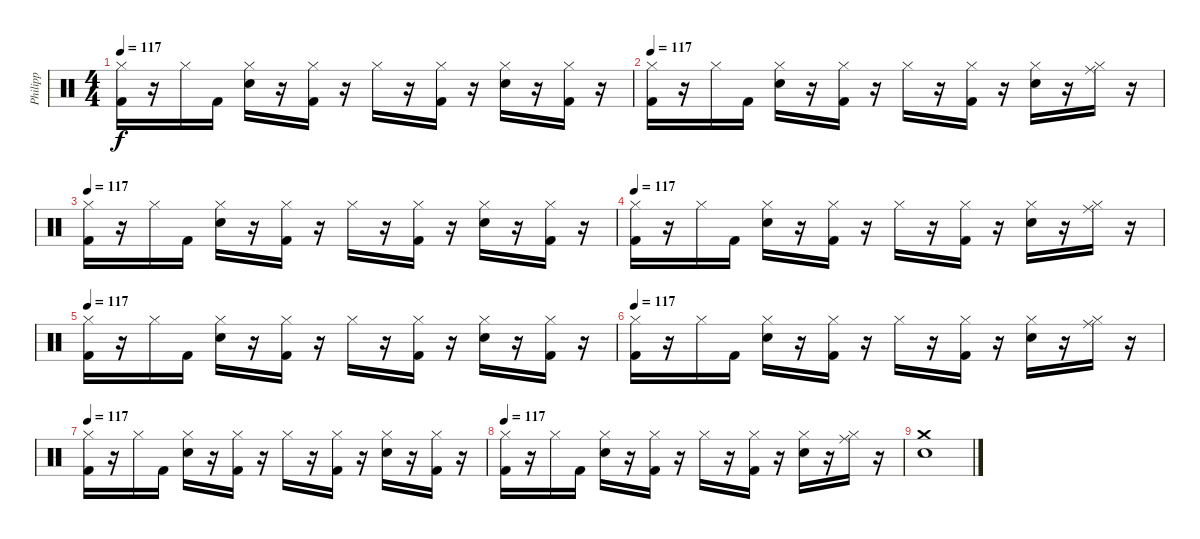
\track ("Philipp" "Philipp") {instrument percussion}
\staff {score}
\articulation defaults
\ts (4 4)
\tempo 117
\clef neutral
\ks c
("Hi-Hat (closed)" "Kick (hit) 2").16{dy f} r.16 "Hi-Hat (closed)".16 "Kick (hit) 2".16 ("Hi-Hat (closed)" "Electric Snare (hit)").16 r.16 ("Hi-Hat (closed)" "Kick (hit) 2").16 r.16 "Hi-Hat (closed)".16 r.16 ("Hi-Hat (closed)" "Kick (hit) 2").16 r.16 ("Hi-Hat (closed)" "Electric Snare (hit)").16 r.16 ("Hi-Hat (closed)" "Kick (hit) 2").16 r.16 |
\tempo 117
("Hi-Hat (closed)" "Kick (hit) 2").16 r.16 "Hi-Hat (closed)".16 "Kick (hit) 2".16 ("Hi-Hat (closed)" "Electric Snare (hit)").16 r.16 ("Hi-Hat (closed)" "Kick (hit) 2").16 r.16 "Hi-Hat (closed)".16 r.16 ("Hi-Hat (closed)" "Kick (hit) 2").16 r.16 ("Hi-Hat (closed)" "Electric Snare (hit)").16 r.16 ("Hi-Hat (closed)" "Ride (middle)").16 r.16 |
\tempo 117
("Hi-Hat (closed)" "Kick (hit) 2").16 r.16 "Hi-Hat (closed)".16 "Kick (hit) 2".16 ("Hi-Hat (closed)" "Electric Snare (hit)").16 r.16 ("Hi-Hat (closed)" "Kick (hit) 2").16 r.16 "Hi-Hat (closed)".16 r.16 ("Hi-Hat (closed)" "Kick (hit) 2").16 r.16 ("Hi-Hat (closed)" "Electric Snare (hit)").16 r.16 ("Hi-Hat (closed)" "Kick (hit) 2").16 r.16 |
\tempo 117
("Hi-Hat (closed)" "Kick (hit) 2").16 r.16 "Hi-Hat (closed)".16 "Kick (hit) 2".16 ("Hi-Hat (closed)" "Electric Snare (hit)").16 r.16 ("Hi-Hat (closed)" "Kick (hit) 2").16 r.16 "Hi-Hat (closed)".16 r.16 ("Hi-Hat (closed)" "Kick (hit) 2").16 r.16 ("Hi-Hat (closed)" "Electric Snare (hit)").16 r.16 ("Hi-Hat (closed)" "Ride (middle)").16 r.16 |
\tempo 117
("Hi-Hat (closed)" "Kick (hit) 2").16 r.16 "Hi-Hat (closed)".16 "Kick (hit) 2".16 ("Hi-Hat (closed)" "Electric Snare (hit)").16 r.16 ("Hi-Hat (closed)" "Kick (hit) 2").16 r.16 "Hi-Hat (closed)".16 r.16 ("Hi-Hat (closed)" "Kick (hit) 2").16 r.16 ("Hi-Hat (closed)" "Electric Snare (hit)").16 r.16 ("Hi-Hat (closed)" "Kick (hit) 2").16 r.16 |
\tempo 117
("Hi-Hat (closed)" "Kick (hit) 2").16 r.16 "Hi-Hat (closed)".16 "Kick (hit) 2".16 ("Hi-Hat (closed)" "Electric Snare (hit)").16 r.16 ("Hi-Hat (closed)" "Kick (hit) 2").16 r.16 "Hi-Hat (closed)".16 r.16 ("Hi-Hat (closed)" "Kick (hit) 2").16 r.16 ("Hi-Hat (closed)" "Electric Snare (hit)").16 r.16 ("Hi-Hat (closed)" "Ride (middle)").16 r.16 |
\tempo 117
("Hi-Hat (closed)" "Kick (hit) 2").16 r.16 "Hi-Hat (closed)".16 "Kick (hit) 2".16 ("Hi-Hat (closed)" "Electric Snare (hit)").16 r.16 ("Hi-Hat (closed)" "Kick (hit) 2").16 r.16 "Hi-Hat (closed)".16 r.16 ("Hi-Hat (closed)" "Kick (hit) 2").16 r.16 ("Hi-Hat (closed)" "Electric Snare (hit)").16 r.16 ("Hi-Hat (closed)" "Kick (hit) 2").16 r.16 |
\tempo 117
("Hi-Hat (closed)" "Kick (hit) 2").16 r.16 "Hi-Hat (closed)".16 "Kick (hit) 2".16 ("Hi-Hat (closed)" "Electric Snare (hit)").16 r.16 ("Hi-Hat (closed)" "Kick (hit) 2").16 r.16 "Hi-Hat (closed)".16 r.16 ("Hi-Hat (closed)" "Kick (hit) 2").16 r.16 ("Hi-Hat (closed)" "Electric Snare (hit)").16 r.16 ("Hi-Hat (closed)" "Ride (middle)").16 r.16 |
("Crash medium (hit)" "Electric Snare (hit)").1
